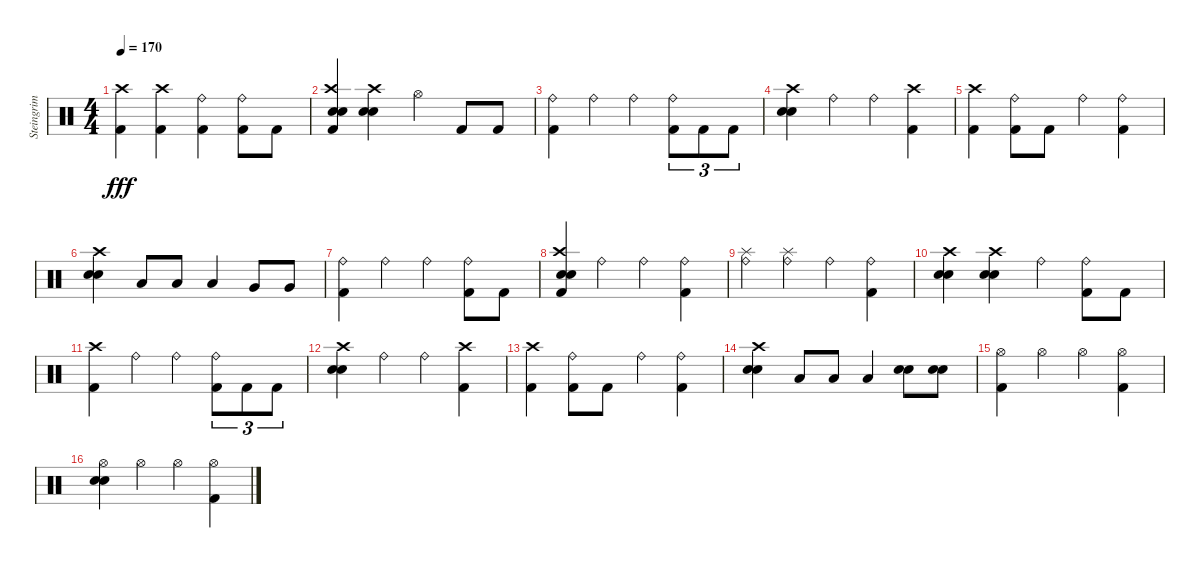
\track ("Steingrim" "Steingrim") {instrument percussion}
\staff {score}
\articulation defaults
\ts (4 4)
\tempo 170
\clef neutral
\ks c
("Kick (hit) 2" "Crash high (hit)").4{dy fff} ("Kick (hit) 2" "Crash high (hit)").4 ("Kick (hit) 2" "Ride (bell)").4 ("Kick (hit) 2" "Ride (bell)").8 "Kick (hit) 2".8 |
("Kick (hit) 2" "Electric Snare (hit)" "Snare (hit) 2" "Crash high (hit)").4 ("Snare (hit) 2" "Electric Snare (hit)" "Crash high (hit)").4 "Hi-Hat (open)".4 "Kick (hit) 2".8 "Kick (hit) 2".8 |
("Kick (hit) 2" "Ride (bell)").4 "Ride (bell)".4 "Ride (bell)".4 ("Kick (hit) 2" "Ride (bell)").8{tu (3 2)} "Kick (hit) 2".8{tu (3 2)} "Kick (hit) 2".8{tu (3 2)} |
("Electric Snare (hit)" "Snare (hit) 2" "Crash high (hit)").4 "Ride (bell)".4 "Ride (bell)".4 ("Kick (hit) 2" "Crash high (hit)").4 |
("Kick (hit) 2" "Crash high (hit)").4 ("Kick (hit) 2" "Ride (bell)").8 "Kick (hit) 2".8 "Ride (bell)".4 ("Kick (hit) 2" "Ride (bell)").4 |
("Snare (hit) 2" "Electric Snare (hit)" "Crash high (hit)").4 "Low Tom (hit)".8 "Low Tom (hit)".8 "Low Tom (hit)".4 "Very Low Tom (hit)".8 "Very Low Tom (hit)".8 |
("Kick (hit) 2" "Ride (bell)").4 "Ride (bell)".4 "Ride (bell)".4 ("Kick (hit) 2" "Ride (bell)").8 "Kick (hit) 2".8 |
("Kick (hit) 2" "Snare (hit) 2" "Electric Snare (hit)" "Crash high (hit)").4 "Ride (bell)".4 "Ride (bell)".4 ("Kick (hit) 2" "Ride (bell)").4 |
("Splash (hit)" "Ride (bell)").4 ("Splash (hit)" "Ride (bell)").4 "Ride (bell)".4 ("Kick (hit) 2" "Ride (bell)").4 |
("Snare (hit) 2" "Electric Snare (hit)" "Crash high (hit)").4 ("Snare (hit) 2" "Electric Snare (hit)" "Crash high (hit)").4 "Ride (bell)".4 ("Kick (hit) 2" "Ride (bell)").8 "Kick (hit) 2".8 |
("Crash high (hit)" "Kick (hit) 2").4 "Ride (bell)".4 "Ride (bell)".4 ("Kick (hit) 2" "Ride (bell)").8{tu (3 2)} "Kick (hit) 2".8{tu (3 2)} "Kick (hit) 2".8{tu (3 2)} |
("Electric Snare (hit)" "Snare (hit) 2" "Crash high (hit)").4 "Ride (bell)".4 "Ride (bell)".4 ("Kick (hit) 2" "Crash high (hit)").4 |
("Kick (hit) 2" "Crash high (hit)").4 ("Kick (hit) 2" "Ride (bell)").8 "Kick (hit) 2".8 "Ride (bell)".4 ("Kick (hit) 2" "Ride (bell)").4 |
("Snare (hit) 2" "Electric Snare (hit)" "Crash high (hit)").4 "Low Tom (hit)".8 "Low Tom (hit)".8 "Low Tom (hit)".4 ("Snare (hit) 2" "Electric Snare (hit)").8 ("Snare (hit) 2" "Electric Snare (hit)").8 |
("Kick (hit) 2" "Hi-Hat (open)").4 "Hi-Hat (open)".4 "Hi-Hat (open)".4 ("Hi-Hat (open)" "Kick (hit) 2").4 |
("Snare (hit) 2" "Electric Snare (hit)" "Hi-Hat (open)").4 "Hi-Hat (open)".4 "Hi-Hat (open)".4 ("Kick (hit) 2" "Hi-Hat (open)").4
